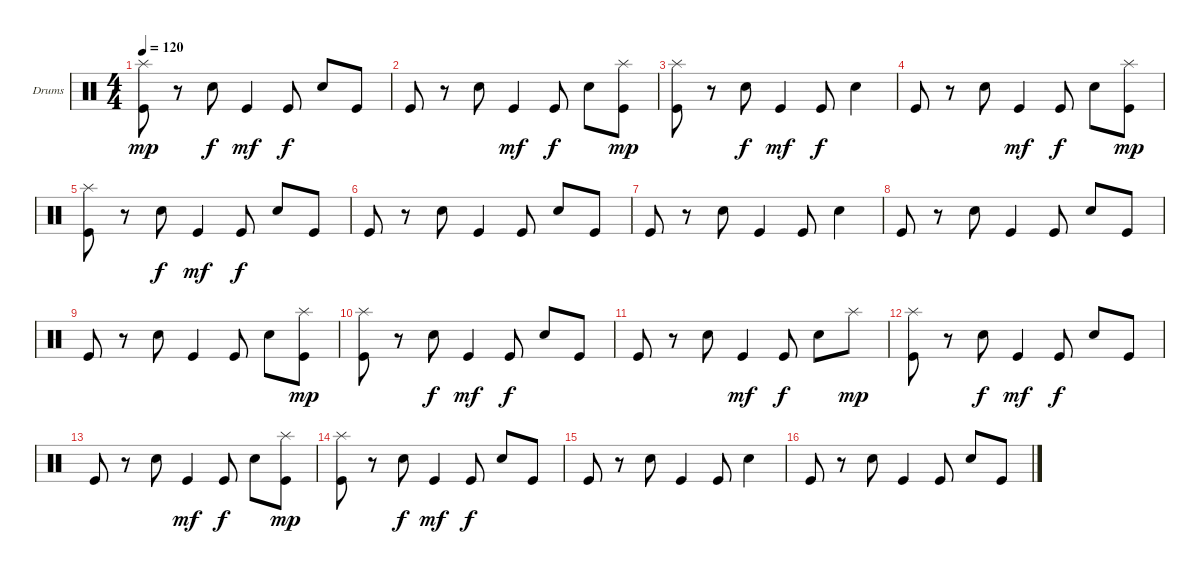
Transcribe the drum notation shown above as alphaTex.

\bracketExtendMode groupsimilarinstruments
\firstSystemTrackNameOrientation horizontal
\otherSystemsTrackNameOrientation horizontal
\track ("Drums" "Drums") {instrument percussion}
\staff {score}
\articulation defaults
\ts (4 4)
\tempo 120
\clef neutral
\ks c
("Splash (hit)" "Kick (hit)").8{dy mp} r.8 "Snare (hit) 2".8{dy f} "Kick (hit)".4{dy mf} "Kick (hit)".8{dy f} "Snare (hit) 2".8 "Kick (hit)".8 |
"Kick (hit)".8 r.8 "Snare (hit) 2".8 "Kick (hit)".4{dy mf} "Kick (hit)".8{dy f} "Snare (hit) 2".8 ("Splash (hit)" "Kick (hit)").8{dy mp} |
("Splash (hit)" "Kick (hit)").8 r.8 "Snare (hit) 2".8{dy f} "Kick (hit)".4{dy mf} "Kick (hit)".8{dy f} "Snare (hit) 2".4 |
"Kick (hit)".8 r.8 "Snare (hit) 2".8 "Kick (hit)".4{dy mf} "Kick (hit)".8{dy f} "Snare (hit) 2".8 ("Splash (hit)" "Kick (hit)").8{dy mp} |
("Splash (hit)" "Kick (hit)").8 r.8 "Snare (hit) 2".8{dy f} "Kick (hit)".4{dy mf} "Kick (hit)".8{dy f} "Snare (hit) 2".8 "Kick (hit)".8 |
"Kick (hit)".8 r.8 "Snare (hit) 2".8 "Kick (hit)".4 "Kick (hit)".8 "Snare (hit) 2".8 "Kick (hit)".8 |
"Kick (hit)".8 r.8 "Snare (hit) 2".8 "Kick (hit)".4 "Kick (hit)".8 "Snare (hit) 2".4 |
"Kick (hit)".8 r.8 "Snare (hit) 2".8 "Kick (hit)".4 "Kick (hit)".8 "Snare (hit) 2".8 "Kick (hit)".8 |
"Kick (hit)".8 r.8 "Snare (hit) 2".8 "Kick (hit)".4 "Kick (hit)".8 "Snare (hit) 2".8 ("Splash (hit)" "Kick (hit)").8{dy mp} |
("Splash (hit)" "Kick (hit)").8 r.8 "Snare (hit) 2".8{dy f} "Kick (hit)".4{dy mf} "Kick (hit)".8{dy f} "Snare (hit) 2".8 "Kick (hit)".8 |
"Kick (hit)".8 r.8 "Snare (hit) 2".8 "Kick (hit)".4{dy mf} "Kick (hit)".8{dy f} "Snare (hit) 2".8 "Splash (hit)".8{dy mp} |
("Splash (hit)" "Kick (hit)").8 r.8 "Snare (hit) 2".8{dy f} "Kick (hit)".4{dy mf} "Kick (hit)".8{dy f} "Snare (hit) 2".8 "Kick (hit)".8 |
"Kick (hit)".8 r.8 "Snare (hit) 2".8 "Kick (hit)".4{dy mf} "Kick (hit)".8{dy f} "Snare (hit) 2".8 ("Splash (hit)" "Kick (hit)").8{dy mp} |
("Splash (hit)" "Kick (hit)").8 r.8 "Snare (hit) 2".8{dy f} "Kick (hit)".4{dy mf} "Kick (hit)".8{dy f} "Snare (hit) 2".8 "Kick (hit)".8 |
"Kick (hit)".8 r.8 "Snare (hit) 2".8 "Kick (hit)".4 "Kick (hit)".8 "Snare (hit) 2".4 |
"Kick (hit)".8 r.8 "Snare (hit) 2".8 "Kick (hit)".4 "Kick (hit)".8 "Snare (hit) 2".8 "Kick (hit)".8
